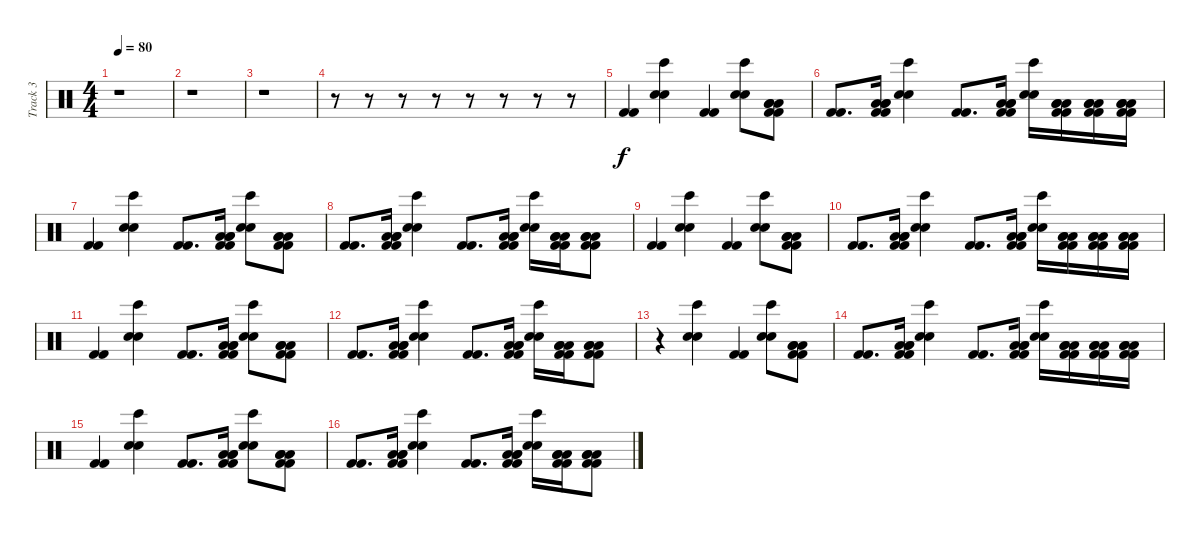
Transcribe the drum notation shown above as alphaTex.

\track ("Track 3" "Track 3") {instrument percussion}
\staff {score}
\articulation defaults
\ts (4 4)
\tempo 80
\clef neutral
\ks c
r.1{dy f} |
r.1 |
r.1 |
r.8 r.8 r.8 r.8 r.8 r.8 r.8 r.8 |
("Kick (hit) 2" "Kick (hit) 2").4 ("Hand Clap (hit)" "Hand Clap (hit)" "Bongo High (hit)").4 ("Kick (hit) 2" "Kick (hit) 2").4 ("Hand Clap (hit)" "Hand Clap (hit)" "Bongo High (hit)").8 ("Kick (hit) 2" "Kick (hit) 2" "Low Floor Tom (hit)" "Low Floor Tom (hit)" "Low Floor Tom (hit)").8 |
("Kick (hit) 2" "Kick (hit) 2").8{d} ("Kick (hit) 2" "Kick (hit) 2" "Low Floor Tom (hit)" "Low Floor Tom (hit)" "Low Floor Tom (hit)").16 ("Hand Clap (hit)" "Hand Clap (hit)" "Bongo High (hit)").4 ("Kick (hit) 2" "Kick (hit) 2").8{d} ("Kick (hit) 2" "Kick (hit) 2" "Low Floor Tom (hit)" "Low Floor Tom (hit)" "Low Floor Tom (hit)").16 ("Hand Clap (hit)" "Hand Clap (hit)" "Bongo High (hit)").16 ("Kick (hit) 2" "Kick (hit) 2" "Low Floor Tom (hit)" "Low Floor Tom (hit)" "Low Floor Tom (hit)").16 ("Kick (hit) 2" "Kick (hit) 2" "Low Floor Tom (hit)" "Low Floor Tom (hit)" "Low Floor Tom (hit)").16 ("Kick (hit) 2" "Kick (hit) 2" "Low Floor Tom (hit)" "Low Floor Tom (hit)" "Low Floor Tom (hit)").16 |
("Kick (hit) 2" "Kick (hit) 2").4 ("Hand Clap (hit)" "Hand Clap (hit)" "Bongo High (hit)").4 ("Kick (hit) 2" "Kick (hit) 2").8{d} ("Kick (hit) 2" "Kick (hit) 2" "Low Floor Tom (hit)" "Low Floor Tom (hit)" "Low Floor Tom (hit)").16 ("Hand Clap (hit)" "Hand Clap (hit)" "Bongo High (hit)").8 ("Kick (hit) 2" "Kick (hit) 2" "Low Floor Tom (hit)" "Low Floor Tom (hit)" "Low Floor Tom (hit)").8 |
("Kick (hit) 2" "Kick (hit) 2").8{d} ("Kick (hit) 2" "Kick (hit) 2" "Low Floor Tom (hit)" "Low Floor Tom (hit)" "Low Floor Tom (hit)").16 ("Hand Clap (hit)" "Hand Clap (hit)" "Bongo High (hit)").4 ("Kick (hit) 2" "Kick (hit) 2").8{d} ("Kick (hit) 2" "Kick (hit) 2" "Low Floor Tom (hit)" "Low Floor Tom (hit)" "Low Floor Tom (hit)").16 ("Hand Clap (hit)" "Hand Clap (hit)" "Bongo High (hit)").16 ("Kick (hit) 2" "Kick (hit) 2" "Low Floor Tom (hit)" "Low Floor Tom (hit)" "Low Floor Tom (hit)").16 ("Kick (hit) 2" "Kick (hit) 2" "Low Floor Tom (hit)" "Low Floor Tom (hit)" "Low Floor Tom (hit)").8 |
("Kick (hit) 2" "Kick (hit) 2").4 ("Hand Clap (hit)" "Hand Clap (hit)" "Bongo High (hit)").4 ("Kick (hit) 2" "Kick (hit) 2").4 ("Hand Clap (hit)" "Hand Clap (hit)" "Bongo High (hit)").8 ("Kick (hit) 2" "Kick (hit) 2" "Low Floor Tom (hit)" "Low Floor Tom (hit)" "Low Floor Tom (hit)").8 |
("Kick (hit) 2" "Kick (hit) 2").8{d} ("Kick (hit) 2" "Kick (hit) 2" "Low Floor Tom (hit)" "Low Floor Tom (hit)" "Low Floor Tom (hit)").16 ("Hand Clap (hit)" "Hand Clap (hit)" "Bongo High (hit)").4 ("Kick (hit) 2" "Kick (hit) 2").8{d} ("Kick (hit) 2" "Kick (hit) 2" "Low Floor Tom (hit)" "Low Floor Tom (hit)" "Low Floor Tom (hit)").16 ("Hand Clap (hit)" "Hand Clap (hit)" "Bongo High (hit)").16 ("Kick (hit) 2" "Kick (hit) 2" "Low Floor Tom (hit)" "Low Floor Tom (hit)" "Low Floor Tom (hit)").16 ("Kick (hit) 2" "Kick (hit) 2" "Low Floor Tom (hit)" "Low Floor Tom (hit)" "Low Floor Tom (hit)").16 ("Kick (hit) 2" "Kick (hit) 2" "Low Floor Tom (hit)" "Low Floor Tom (hit)" "Low Floor Tom (hit)").16 |
("Kick (hit) 2" "Kick (hit) 2").4 ("Hand Clap (hit)" "Hand Clap (hit)" "Bongo High (hit)").4 ("Kick (hit) 2" "Kick (hit) 2").8{d} ("Kick (hit) 2" "Kick (hit) 2" "Low Floor Tom (hit)" "Low Floor Tom (hit)" "Low Floor Tom (hit)").16 ("Hand Clap (hit)" "Hand Clap (hit)" "Bongo High (hit)").8 ("Kick (hit) 2" "Kick (hit) 2" "Low Floor Tom (hit)" "Low Floor Tom (hit)" "Low Floor Tom (hit)").8 |
("Kick (hit) 2" "Kick (hit) 2").8{d} ("Kick (hit) 2" "Kick (hit) 2" "Low Floor Tom (hit)" "Low Floor Tom (hit)" "Low Floor Tom (hit)").16 ("Hand Clap (hit)" "Hand Clap (hit)" "Bongo High (hit)").4 ("Kick (hit) 2" "Kick (hit) 2").8{d} ("Kick (hit) 2" "Kick (hit) 2" "Low Floor Tom (hit)" "Low Floor Tom (hit)" "Low Floor Tom (hit)").16 ("Hand Clap (hit)" "Hand Clap (hit)" "Bongo High (hit)").16 ("Kick (hit) 2" "Kick (hit) 2" "Low Floor Tom (hit)" "Low Floor Tom (hit)" "Low Floor Tom (hit)").16 ("Kick (hit) 2" "Kick (hit) 2" "Low Floor Tom (hit)" "Low Floor Tom (hit)" "Low Floor Tom (hit)").8 |
r.4 ("Hand Clap (hit)" "Hand Clap (hit)" "Bongo High (hit)").4 ("Kick (hit) 2" "Kick (hit) 2").4 ("Hand Clap (hit)" "Hand Clap (hit)" "Bongo High (hit)").8 ("Kick (hit) 2" "Kick (hit) 2" "Low Floor Tom (hit)" "Low Floor Tom (hit)" "Low Floor Tom (hit)").8 |
("Kick (hit) 2" "Kick (hit) 2").8{d} ("Kick (hit) 2" "Kick (hit) 2" "Low Floor Tom (hit)" "Low Floor Tom (hit)" "Low Floor Tom (hit)").16 ("Hand Clap (hit)" "Hand Clap (hit)" "Bongo High (hit)").4 ("Kick (hit) 2" "Kick (hit) 2").8{d} ("Kick (hit) 2" "Kick (hit) 2" "Low Floor Tom (hit)" "Low Floor Tom (hit)" "Low Floor Tom (hit)").16 ("Hand Clap (hit)" "Hand Clap (hit)" "Bongo High (hit)").16 ("Kick (hit) 2" "Kick (hit) 2" "Low Floor Tom (hit)" "Low Floor Tom (hit)" "Low Floor Tom (hit)").16 ("Kick (hit) 2" "Kick (hit) 2" "Low Floor Tom (hit)" "Low Floor Tom (hit)" "Low Floor Tom (hit)").16 ("Kick (hit) 2" "Kick (hit) 2" "Low Floor Tom (hit)" "Low Floor Tom (hit)" "Low Floor Tom (hit)").16 |
("Kick (hit) 2" "Kick (hit) 2").4 ("Hand Clap (hit)" "Hand Clap (hit)" "Bongo High (hit)").4 ("Kick (hit) 2" "Kick (hit) 2").8{d} ("Kick (hit) 2" "Kick (hit) 2" "Low Floor Tom (hit)" "Low Floor Tom (hit)" "Low Floor Tom (hit)").16 ("Hand Clap (hit)" "Hand Clap (hit)" "Bongo High (hit)").8 ("Kick (hit) 2" "Kick (hit) 2" "Low Floor Tom (hit)" "Low Floor Tom (hit)" "Low Floor Tom (hit)").8 |
("Kick (hit) 2" "Kick (hit) 2").8{d} ("Kick (hit) 2" "Kick (hit) 2" "Low Floor Tom (hit)" "Low Floor Tom (hit)" "Low Floor Tom (hit)").16 ("Hand Clap (hit)" "Hand Clap (hit)" "Bongo High (hit)").4 ("Kick (hit) 2" "Kick (hit) 2").8{d} ("Kick (hit) 2" "Kick (hit) 2" "Low Floor Tom (hit)" "Low Floor Tom (hit)" "Low Floor Tom (hit)").16 ("Hand Clap (hit)" "Hand Clap (hit)" "Bongo High (hit)").16 ("Kick (hit) 2" "Kick (hit) 2" "Low Floor Tom (hit)" "Low Floor Tom (hit)" "Low Floor Tom (hit)").16 ("Kick (hit) 2" "Kick (hit) 2" "Low Floor Tom (hit)" "Low Floor Tom (hit)" "Low Floor Tom (hit)").8
